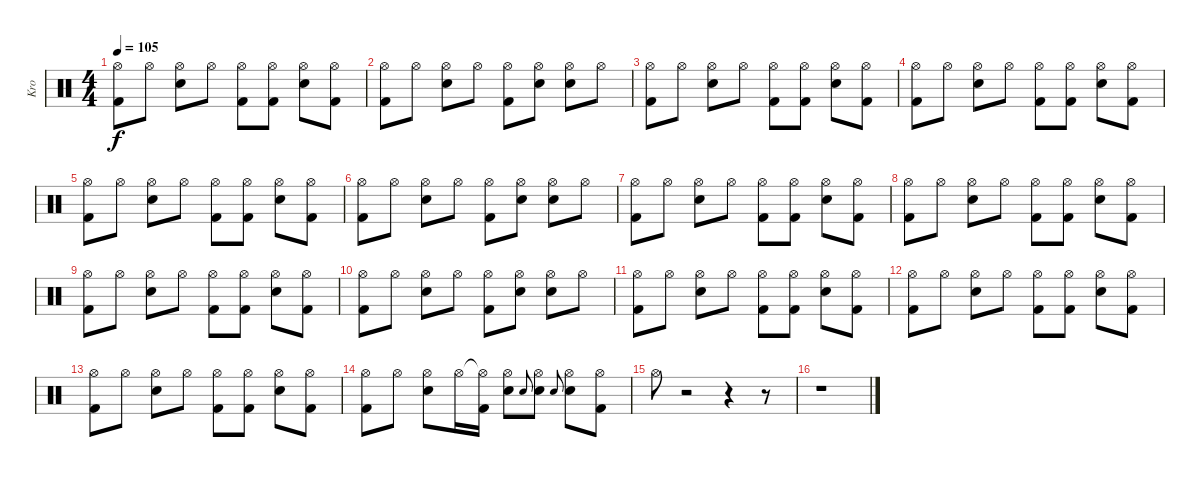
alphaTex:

\track ("Kro" "Kro") {instrument percussion}
\staff {score}
\articulation defaults
\ts (4 4)
\tempo 105
\clef neutral
\ks c
("Hi-Hat (open)" "Kick (hit) 2").8{dy f} "Hi-Hat (open)".8 ("Hi-Hat (open)" "Electric Snare (hit)").8 "Hi-Hat (open)".8 ("Hi-Hat (open)" "Kick (hit) 2").8 ("Hi-Hat (open)" "Kick (hit) 2").8 ("Hi-Hat (open)" "Electric Snare (hit)").8 ("Hi-Hat (open)" "Kick (hit) 2").8 |
("Hi-Hat (open)" "Kick (hit) 2").8 "Hi-Hat (open)".8 ("Hi-Hat (open)" "Electric Snare (hit)").8 "Hi-Hat (open)".8 ("Hi-Hat (open)" "Kick (hit) 2").8 ("Hi-Hat (open)" "Electric Snare (hit)").8 ("Hi-Hat (open)" "Electric Snare (hit)").8 "Hi-Hat (open)".8 |
("Hi-Hat (open)" "Kick (hit) 2").8 "Hi-Hat (open)".8 ("Hi-Hat (open)" "Electric Snare (hit)").8 "Hi-Hat (open)".8 ("Hi-Hat (open)" "Kick (hit) 2").8 ("Hi-Hat (open)" "Kick (hit) 2").8 ("Hi-Hat (open)" "Electric Snare (hit)").8 ("Hi-Hat (open)" "Kick (hit) 2").8 |
("Hi-Hat (open)" "Kick (hit) 2").8 "Hi-Hat (open)".8 ("Hi-Hat (open)" "Electric Snare (hit)").8 "Hi-Hat (open)".8 ("Hi-Hat (open)" "Kick (hit) 2").8 ("Hi-Hat (open)" "Kick (hit) 2").8 ("Hi-Hat (open)" "Electric Snare (hit)").8 ("Hi-Hat (open)" "Kick (hit) 2").8 |
("Hi-Hat (open)" "Kick (hit) 2").8 "Hi-Hat (open)".8 ("Hi-Hat (open)" "Electric Snare (hit)").8 "Hi-Hat (open)".8 ("Hi-Hat (open)" "Kick (hit) 2").8 ("Hi-Hat (open)" "Kick (hit) 2").8 ("Hi-Hat (open)" "Electric Snare (hit)").8 ("Hi-Hat (open)" "Kick (hit) 2").8 |
("Hi-Hat (open)" "Kick (hit) 2").8 "Hi-Hat (open)".8 ("Hi-Hat (open)" "Electric Snare (hit)").8 "Hi-Hat (open)".8 ("Hi-Hat (open)" "Kick (hit) 2").8 ("Hi-Hat (open)" "Electric Snare (hit)").8 ("Hi-Hat (open)" "Electric Snare (hit)").8 "Hi-Hat (open)".8 |
("Hi-Hat (open)" "Kick (hit) 2").8 "Hi-Hat (open)".8 ("Hi-Hat (open)" "Electric Snare (hit)").8 "Hi-Hat (open)".8 ("Hi-Hat (open)" "Kick (hit) 2").8 ("Hi-Hat (open)" "Kick (hit) 2").8 ("Hi-Hat (open)" "Electric Snare (hit)").8 ("Hi-Hat (open)" "Kick (hit) 2").8 |
("Hi-Hat (open)" "Kick (hit) 2").8 "Hi-Hat (open)".8 ("Hi-Hat (open)" "Electric Snare (hit)").8 "Hi-Hat (open)".8 ("Hi-Hat (open)" "Kick (hit) 2").8 ("Hi-Hat (open)" "Kick (hit) 2").8 ("Hi-Hat (open)" "Electric Snare (hit)").8 ("Hi-Hat (open)" "Kick (hit) 2").8 |
("Hi-Hat (open)" "Kick (hit) 2").8 "Hi-Hat (open)".8 ("Hi-Hat (open)" "Electric Snare (hit)").8 "Hi-Hat (open)".8 ("Hi-Hat (open)" "Kick (hit) 2").8 ("Hi-Hat (open)" "Kick (hit) 2").8 ("Hi-Hat (open)" "Electric Snare (hit)").8 ("Hi-Hat (open)" "Kick (hit) 2").8 |
("Hi-Hat (open)" "Kick (hit) 2").8 "Hi-Hat (open)".8 ("Hi-Hat (open)" "Electric Snare (hit)").8 "Hi-Hat (open)".8 ("Hi-Hat (open)" "Kick (hit) 2").8 ("Hi-Hat (open)" "Electric Snare (hit)").8 ("Hi-Hat (open)" "Electric Snare (hit)").8 "Hi-Hat (open)".8 |
("Hi-Hat (open)" "Kick (hit) 2").8 "Hi-Hat (open)".8 ("Hi-Hat (open)" "Electric Snare (hit)").8 "Hi-Hat (open)".8 ("Hi-Hat (open)" "Kick (hit) 2").8 ("Hi-Hat (open)" "Kick (hit) 2").8 ("Hi-Hat (open)" "Electric Snare (hit)").8 ("Hi-Hat (open)" "Kick (hit) 2").8 |
("Hi-Hat (open)" "Kick (hit) 2").8 "Hi-Hat (open)".8 ("Hi-Hat (open)" "Electric Snare (hit)").8 "Hi-Hat (open)".8 ("Hi-Hat (open)" "Kick (hit) 2").8 ("Hi-Hat (open)" "Kick (hit) 2").8 ("Hi-Hat (open)" "Electric Snare (hit)").8 ("Hi-Hat (open)" "Kick (hit) 2").8 |
("Hi-Hat (open)" "Kick (hit) 2").8 "Hi-Hat (open)".8 ("Hi-Hat (open)" "Electric Snare (hit)").8 "Hi-Hat (open)".8 ("Hi-Hat (open)" "Kick (hit) 2").8 ("Hi-Hat (open)" "Kick (hit) 2").8 ("Hi-Hat (open)" "Electric Snare (hit)").8 ("Hi-Hat (open)" "Kick (hit) 2").8 |
("Hi-Hat (open)" "Kick (hit) 2").8 "Hi-Hat (open)".8 ("Hi-Hat (open)" "Electric Snare (hit)").8 "Hi-Hat (open)".16 ("Hi-Hat (open)"{t} "Kick (hit) 2").16 ("Hi-Hat (open)" "Electric Snare (hit)").8 "Electric Snare (hit)".8{gr onbeat} ("Hi-Hat (open)" "Electric Snare (hit)").8 "Electric Snare (hit)".8{gr onbeat} ("Hi-Hat (open)" "Electric Snare (hit)").8 ("Hi-Hat (open)" "Kick (hit) 2").8 |
"Hi-Hat (open)".8 r.2 r.4 r.8 |
r.1
